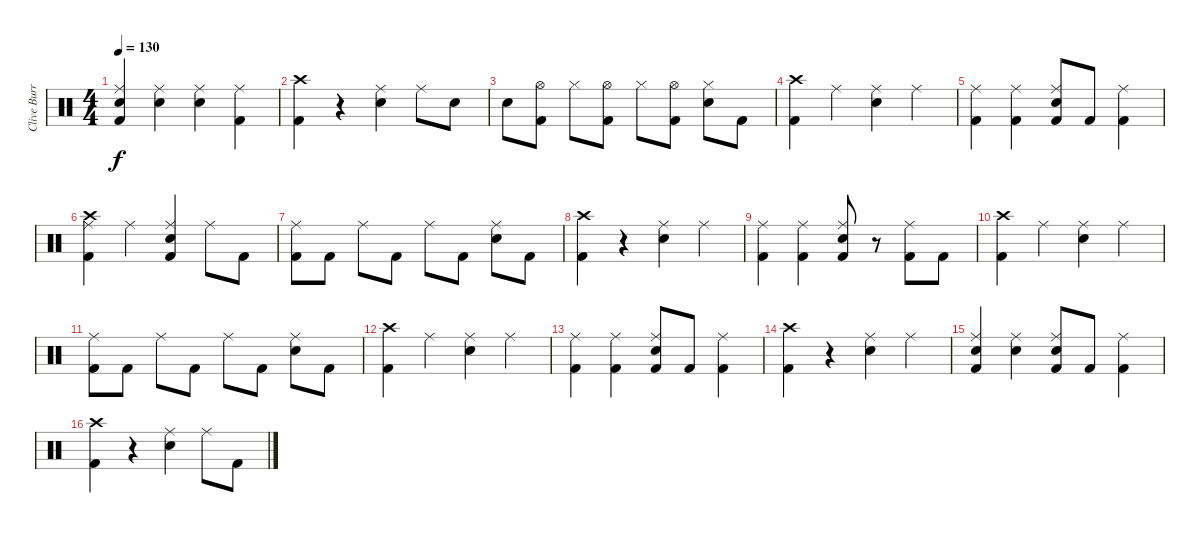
\track ("Clive Burr" "Clive Burr") {instrument percussion}
\staff {score}
\articulation defaults
\ts (4 4)
\tempo 130
\clef neutral
\ks c
("Snare (hit) 2" "Ride (middle)" "Kick (hit) 2").4{dy f} ("Snare (hit) 2" "Ride (middle)").4 ("Snare (hit) 2" "Ride (middle)").4 ("Ride (middle)" "Kick (hit) 2").4 |
("Crash high (hit)" "Kick (hit) 2").4 r.4 ("Snare (hit) 2" "Ride (middle)").4 "Ride (middle)".8 "Snare (hit) 2".8 |
"Snare (hit) 2".8 ("Hi-Hat (open)" "Kick (hit) 2").8 "Hi-Hat (closed)".8 ("Hi-Hat (open)" "Kick (hit) 2").8 "Hi-Hat (closed)".8 ("Hi-Hat (open)" "Kick (hit) 2").8 ("Snare (hit) 2" "Hi-Hat (closed)").8 "Kick (hit) 2".8 |
("Crash high (hit)" "Kick (hit) 2").4 "Ride (middle)".4 ("Snare (hit) 2" "Ride (middle)").4 "Ride (middle)".4 |
("Ride (middle)" "Kick (hit) 2").4 ("Ride (middle)" "Kick (hit) 2").4 ("Snare (hit) 2" "Ride (middle)" "Kick (hit) 2").8 "Kick (hit) 2".8 ("Ride (middle)" "Kick (hit) 2").4 |
("Crash high (hit)" "Ride (middle)" "Kick (hit) 2").4 "Ride (middle)".4 ("Snare (hit) 2" "Ride (middle)" "Kick (hit) 2").4 "Ride (middle)".8 "Kick (hit) 2".8 |
("Ride (middle)" "Kick (hit) 2").8 "Kick (hit) 2".8 "Ride (middle)".8 "Kick (hit) 2".8 "Ride (middle)".8 "Kick (hit) 2".8 ("Snare (hit) 2" "Ride (middle)").8 "Kick (hit) 2".8 |
("Crash high (hit)" "Kick (hit) 2").4 r.4 ("Snare (hit) 2" "Ride (middle)").4 "Ride (middle)".4 |
("Ride (middle)" "Kick (hit) 2").4 ("Ride (middle)" "Kick (hit) 2").4 ("Snare (hit) 2" "Ride (middle)" "Kick (hit) 2").8 r.8 ("Ride (middle)" "Kick (hit) 2").8 "Kick (hit) 2".8 |
("Crash high (hit)" "Kick (hit) 2").4 "Ride (middle)".4 ("Snare (hit) 2" "Ride (middle)").4 "Ride (middle)".4 |
("Ride (middle)" "Kick (hit) 2").8 "Kick (hit) 2".8 "Ride (middle)".8 "Kick (hit) 2".8 "Ride (middle)".8 "Kick (hit) 2".8 ("Snare (hit) 2" "Ride (middle)").8 "Kick (hit) 2".8 |
("Crash high (hit)" "Kick (hit) 2").4 "Ride (middle)".4 ("Snare (hit) 2" "Ride (middle)").4 "Ride (middle)".4 |
("Ride (middle)" "Kick (hit) 2").4 ("Ride (middle)" "Kick (hit) 2").4 ("Snare (hit) 2" "Ride (middle)" "Kick (hit) 2").8 "Kick (hit) 2".8 ("Ride (middle)" "Kick (hit) 2").4 |
("Crash high (hit)" "Kick (hit) 2").4 r.4 ("Snare (hit) 2" "Ride (middle)").4 "Ride (middle)".4 |
("Snare (hit) 2" "Ride (middle)" "Kick (hit) 2").4 ("Snare (hit) 2" "Ride (middle)").4 ("Snare (hit) 2" "Ride (middle)" "Kick (hit) 2").8 "Kick (hit) 2".8 ("Ride (middle)" "Kick (hit) 2").4 |
("Crash high (hit)" "Kick (hit) 2").4 r.4 ("Snare (hit) 2" "Ride (middle)").4 "Ride (middle)".8 "Kick (hit) 2".8
